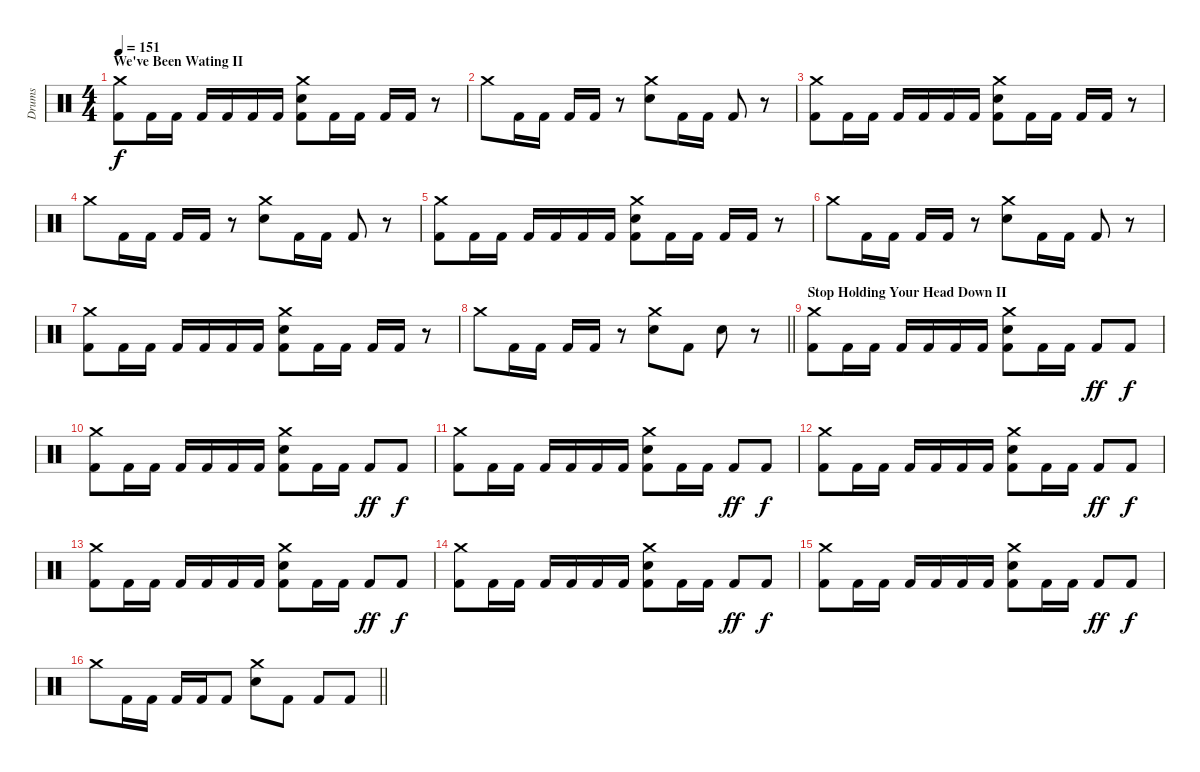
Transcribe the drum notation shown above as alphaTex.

\track ("Drums" "Drums") {instrument percussion}
\staff {score}
\articulation defaults
\ts (4 4)
\section ("" "We've Been Wating II")
\tempo 151
\clef neutral
\ks c
("Crash medium (hit)" "Kick (hit) 2").8{dy f} "Kick (hit) 2".16 "Kick (hit) 2".16 "Kick (hit) 2".16 "Kick (hit) 2".16 "Kick (hit) 2".16 "Kick (hit) 2".16 ("Crash medium (hit)" "Snare (hit) 2" "Kick (hit) 2").8 "Kick (hit) 2".16 "Kick (hit) 2".16 "Kick (hit) 2".16 "Kick (hit) 2".16 r.8 |
"Crash medium (hit)".8 "Kick (hit) 2".16 "Kick (hit) 2".16 "Kick (hit) 2".16 "Kick (hit) 2".16 r.8 ("Crash medium (hit)" "Snare (hit) 2").8 "Kick (hit) 2".16 "Kick (hit) 2".16 "Kick (hit) 2".8 r.8 |
("Crash medium (hit)" "Kick (hit) 2").8 "Kick (hit) 2".16 "Kick (hit) 2".16 "Kick (hit) 2".16 "Kick (hit) 2".16 "Kick (hit) 2".16 "Kick (hit) 2".16 ("Crash medium (hit)" "Snare (hit) 2" "Kick (hit) 2").8 "Kick (hit) 2".16 "Kick (hit) 2".16 "Kick (hit) 2".16 "Kick (hit) 2".16 r.8 |
"Crash medium (hit)".8 "Kick (hit) 2".16 "Kick (hit) 2".16 "Kick (hit) 2".16 "Kick (hit) 2".16 r.8 ("Crash medium (hit)" "Snare (hit) 2").8 "Kick (hit) 2".16 "Kick (hit) 2".16 "Kick (hit) 2".8 r.8 |
("Crash medium (hit)" "Kick (hit) 2").8 "Kick (hit) 2".16 "Kick (hit) 2".16 "Kick (hit) 2".16 "Kick (hit) 2".16 "Kick (hit) 2".16 "Kick (hit) 2".16 ("Crash medium (hit)" "Snare (hit) 2" "Kick (hit) 2").8 "Kick (hit) 2".16 "Kick (hit) 2".16 "Kick (hit) 2".16 "Kick (hit) 2".16 r.8 |
"Crash medium (hit)".8 "Kick (hit) 2".16 "Kick (hit) 2".16 "Kick (hit) 2".16 "Kick (hit) 2".16 r.8 ("Crash medium (hit)" "Snare (hit) 2").8 "Kick (hit) 2".16 "Kick (hit) 2".16 "Kick (hit) 2".8 r.8 |
("Crash medium (hit)" "Kick (hit) 2").8 "Kick (hit) 2".16 "Kick (hit) 2".16 "Kick (hit) 2".16 "Kick (hit) 2".16 "Kick (hit) 2".16 "Kick (hit) 2".16 ("Crash medium (hit)" "Snare (hit) 2" "Kick (hit) 2").8 "Kick (hit) 2".16 "Kick (hit) 2".16 "Kick (hit) 2".16 "Kick (hit) 2".16 r.8 |
\barLineRight lightlight "Crash medium (hit)".8 "Kick (hit) 2".16 "Kick (hit) 2".16 "Kick (hit) 2".16 "Kick (hit) 2".16
r.8 ("Crash medium (hit)" "Snare (hit) 2").8 "Kick (hit) 2".8 "Snare (hit) 2".8 r.8 |
\section ("" "Stop Holding Your Head Down II")
("Crash medium (hit)" "Kick (hit) 2").8 "Kick (hit) 2".16 "Kick (hit) 2".16 "Kick (hit) 2".16 "Kick (hit) 2".16 "Kick (hit) 2".16 "Kick (hit) 2".16 ("Crash medium (hit)" "Snare (hit) 2" "Kick (hit) 2").8 "Kick (hit) 2".16 "Kick (hit) 2".16 "Kick (hit) 2".8{dy ff} "Kick (hit) 2".8{dy f} |
("Crash medium (hit)" "Kick (hit) 2").8 "Kick (hit) 2".16 "Kick (hit) 2".16 "Kick (hit) 2".16 "Kick (hit) 2".16 "Kick (hit) 2".16 "Kick (hit) 2".16 ("Crash medium (hit)" "Snare (hit) 2" "Kick (hit) 2").8 "Kick (hit) 2".16 "Kick (hit) 2".16 "Kick (hit) 2".8{dy ff} "Kick (hit) 2".8{dy f} |
("Crash medium (hit)" "Kick (hit) 2").8 "Kick (hit) 2".16 "Kick (hit) 2".16 "Kick (hit) 2".16 "Kick (hit) 2".16 "Kick (hit) 2".16 "Kick (hit) 2".16 ("Crash medium (hit)" "Snare (hit) 2" "Kick (hit) 2").8 "Kick (hit) 2".16 "Kick (hit) 2".16 "Kick (hit) 2".8{dy ff} "Kick (hit) 2".8{dy f} |
("Crash medium (hit)" "Kick (hit) 2").8 "Kick (hit) 2".16 "Kick (hit) 2".16 "Kick (hit) 2".16 "Kick (hit) 2".16 "Kick (hit) 2".16 "Kick (hit) 2".16 ("Crash medium (hit)" "Snare (hit) 2" "Kick (hit) 2").8 "Kick (hit) 2".16 "Kick (hit) 2".16 "Kick (hit) 2".8{dy ff} "Kick (hit) 2".8{dy f} |
("Crash medium (hit)" "Kick (hit) 2").8 "Kick (hit) 2".16 "Kick (hit) 2".16 "Kick (hit) 2".16 "Kick (hit) 2".16 "Kick (hit) 2".16 "Kick (hit) 2".16 ("Crash medium (hit)" "Snare (hit) 2" "Kick (hit) 2").8 "Kick (hit) 2".16 "Kick (hit) 2".16 "Kick (hit) 2".8{dy ff} "Kick (hit) 2".8{dy f} |
("Crash medium (hit)" "Kick (hit) 2").8 "Kick (hit) 2".16 "Kick (hit) 2".16 "Kick (hit) 2".16 "Kick (hit) 2".16 "Kick (hit) 2".16 "Kick (hit) 2".16 ("Crash medium (hit)" "Snare (hit) 2" "Kick (hit) 2").8 "Kick (hit) 2".16 "Kick (hit) 2".16 "Kick (hit) 2".8{dy ff} "Kick (hit) 2".8{dy f} |
("Crash medium (hit)" "Kick (hit) 2").8 "Kick (hit) 2".16 "Kick (hit) 2".16 "Kick (hit) 2".16 "Kick (hit) 2".16 "Kick (hit) 2".16 "Kick (hit) 2".16 ("Crash medium (hit)" "Snare (hit) 2" "Kick (hit) 2").8 "Kick (hit) 2".16 "Kick (hit) 2".16 "Kick (hit) 2".8{dy ff} "Kick (hit) 2".8{dy f} |
\barLineRight lightlight "Crash medium (hit)".8 "Kick (hit) 2".16 "Kick (hit) 2".16 "Kick (hit) 2".16 "Kick (hit) 2".16 "Kick (hit) 2".8
("Crash medium (hit)" "Snare (hit) 2").8 "Kick (hit) 2".8 "Kick (hit) 2".8 "Kick (hit) 2".8
